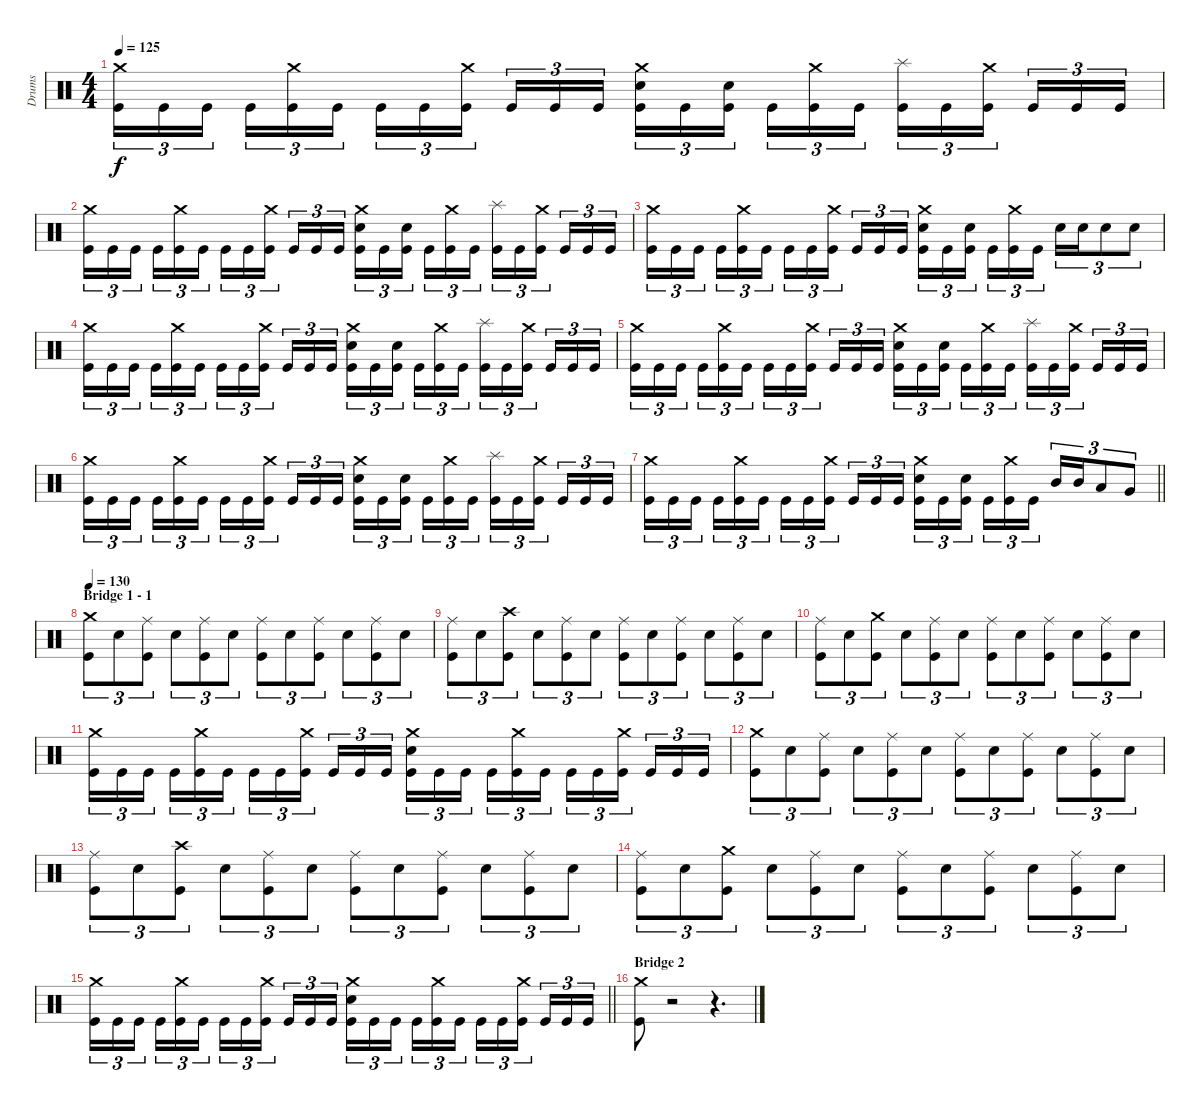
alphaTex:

\track ("Drums" "Drums") {instrument percussion}
\staff {score}
\articulation defaults
\ts (4 4)
\tempo 125
\clef neutral
\ks c
("Crash medium (hit)" "Kick (hit)").16{tu (3 2) dy f} "Kick (hit)".16{tu (3 2)} "Kick (hit)".16{tu (3 2) beam splitsecondary} "Kick (hit)".16{tu (3 2)} ("Crash medium (hit)" "Kick (hit)").16{tu (3 2)} "Kick (hit)".16{tu (3 2)} "Kick (hit)".16{tu (3 2)} "Kick (hit)".16{tu (3 2)} ("Crash medium (hit)" "Kick (hit)").16{tu (3 2) beam splitsecondary} "Kick (hit)".16{tu (3 2)} "Kick (hit)".16{tu (3 2)} "Kick (hit)".16{tu (3 2)} ("Crash medium (hit)" "Snare (hit) 2" "Kick (hit)").16{tu (3 2)} "Kick (hit)".16{tu (3 2)} ("Snare (hit) 2" "Kick (hit)").16{tu (3 2) beam splitsecondary} "Kick (hit)".16{tu (3 2)} ("Crash medium (hit)" "Kick (hit)").16{tu (3 2)} "Kick (hit)".16{tu (3 2)} ("Splash (hit)" "Kick (hit)").16{tu (3 2)} "Kick (hit)".16{tu (3 2)} ("Crash medium (hit)" "Kick (hit)").16{tu (3 2) beam splitsecondary} "Kick (hit)".16{tu (3 2)} "Kick (hit)".16{tu (3 2)} "Kick (hit)".16{tu (3 2)} |
("Crash medium (hit)" "Kick (hit)").16{tu (3 2)} "Kick (hit)".16{tu (3 2)} "Kick (hit)".16{tu (3 2) beam splitsecondary} "Kick (hit)".16{tu (3 2)} ("Crash medium (hit)" "Kick (hit)").16{tu (3 2)} "Kick (hit)".16{tu (3 2)} "Kick (hit)".16{tu (3 2)} "Kick (hit)".16{tu (3 2)} ("Crash medium (hit)" "Kick (hit)").16{tu (3 2) beam splitsecondary} "Kick (hit)".16{tu (3 2)} "Kick (hit)".16{tu (3 2)} "Kick (hit)".16{tu (3 2)} ("Crash medium (hit)" "Snare (hit) 2" "Kick (hit)").16{tu (3 2)} "Kick (hit)".16{tu (3 2)} ("Snare (hit) 2" "Kick (hit)").16{tu (3 2) beam splitsecondary} "Kick (hit)".16{tu (3 2)} ("Crash medium (hit)" "Kick (hit)").16{tu (3 2)} "Kick (hit)".16{tu (3 2)} ("Splash (hit)" "Kick (hit)").16{tu (3 2)} "Kick (hit)".16{tu (3 2)} ("Crash medium (hit)" "Kick (hit)").16{tu (3 2) beam splitsecondary} "Kick (hit)".16{tu (3 2)} "Kick (hit)".16{tu (3 2)} "Kick (hit)".16{tu (3 2)} |
("Crash medium (hit)" "Kick (hit)").16{tu (3 2)} "Kick (hit)".16{tu (3 2)} "Kick (hit)".16{tu (3 2) beam splitsecondary} "Kick (hit)".16{tu (3 2)} ("Crash medium (hit)" "Kick (hit)").16{tu (3 2)} "Kick (hit)".16{tu (3 2)} "Kick (hit)".16{tu (3 2)} "Kick (hit)".16{tu (3 2)} ("Crash medium (hit)" "Kick (hit)").16{tu (3 2) beam splitsecondary} "Kick (hit)".16{tu (3 2)} "Kick (hit)".16{tu (3 2)} "Kick (hit)".16{tu (3 2)} ("Crash medium (hit)" "Snare (hit) 2" "Kick (hit)").16{tu (3 2)} "Kick (hit)".16{tu (3 2)} ("Snare (hit) 2" "Kick (hit)").16{tu (3 2) beam splitsecondary} "Kick (hit)".16{tu (3 2)} ("Crash medium (hit)" "Kick (hit)").16{tu (3 2)} "Kick (hit)".16{tu (3 2)} "Snare (hit) 2".16{tu (3 2)} "Snare (hit) 2".16{tu (3 2)} "Snare (hit) 2".8{tu (3 2)} "Snare (hit) 2".8{tu (3 2)} |
("Crash medium (hit)" "Kick (hit)").16{tu (3 2)} "Kick (hit)".16{tu (3 2)} "Kick (hit)".16{tu (3 2) beam splitsecondary} "Kick (hit)".16{tu (3 2)} ("Crash medium (hit)" "Kick (hit)").16{tu (3 2)} "Kick (hit)".16{tu (3 2)} "Kick (hit)".16{tu (3 2)} "Kick (hit)".16{tu (3 2)} ("Crash medium (hit)" "Kick (hit)").16{tu (3 2) beam splitsecondary} "Kick (hit)".16{tu (3 2)} "Kick (hit)".16{tu (3 2)} "Kick (hit)".16{tu (3 2)} ("Crash medium (hit)" "Snare (hit) 2" "Kick (hit)").16{tu (3 2)} "Kick (hit)".16{tu (3 2)} ("Snare (hit) 2" "Kick (hit)").16{tu (3 2) beam splitsecondary} "Kick (hit)".16{tu (3 2)} ("Crash medium (hit)" "Kick (hit)").16{tu (3 2)} "Kick (hit)".16{tu (3 2)} ("Splash (hit)" "Kick (hit)").16{tu (3 2)} "Kick (hit)".16{tu (3 2)} ("Crash medium (hit)" "Kick (hit)").16{tu (3 2) beam splitsecondary} "Kick (hit)".16{tu (3 2)} "Kick (hit)".16{tu (3 2)} "Kick (hit)".16{tu (3 2)} |
("Crash medium (hit)" "Kick (hit)").16{tu (3 2)} "Kick (hit)".16{tu (3 2)} "Kick (hit)".16{tu (3 2) beam splitsecondary} "Kick (hit)".16{tu (3 2)} ("Crash medium (hit)" "Kick (hit)").16{tu (3 2)} "Kick (hit)".16{tu (3 2)} "Kick (hit)".16{tu (3 2)} "Kick (hit)".16{tu (3 2)} ("Crash medium (hit)" "Kick (hit)").16{tu (3 2) beam splitsecondary} "Kick (hit)".16{tu (3 2)} "Kick (hit)".16{tu (3 2)} "Kick (hit)".16{tu (3 2)} ("Crash medium (hit)" "Snare (hit) 2" "Kick (hit)").16{tu (3 2)} "Kick (hit)".16{tu (3 2)} ("Snare (hit) 2" "Kick (hit)").16{tu (3 2) beam splitsecondary} "Kick (hit)".16{tu (3 2)} ("Crash medium (hit)" "Kick (hit)").16{tu (3 2)} "Kick (hit)".16{tu (3 2)} ("Splash (hit)" "Kick (hit)").16{tu (3 2)} "Kick (hit)".16{tu (3 2)} ("Crash medium (hit)" "Kick (hit)").16{tu (3 2) beam splitsecondary} "Kick (hit)".16{tu (3 2)} "Kick (hit)".16{tu (3 2)} "Kick (hit)".16{tu (3 2)} |
("Crash medium (hit)" "Kick (hit)").16{tu (3 2)} "Kick (hit)".16{tu (3 2)} "Kick (hit)".16{tu (3 2) beam splitsecondary} "Kick (hit)".16{tu (3 2)} ("Crash medium (hit)" "Kick (hit)").16{tu (3 2)} "Kick (hit)".16{tu (3 2)} "Kick (hit)".16{tu (3 2)} "Kick (hit)".16{tu (3 2)} ("Crash medium (hit)" "Kick (hit)").16{tu (3 2) beam splitsecondary} "Kick (hit)".16{tu (3 2)} "Kick (hit)".16{tu (3 2)} "Kick (hit)".16{tu (3 2)} ("Crash medium (hit)" "Snare (hit) 2" "Kick (hit)").16{tu (3 2)} "Kick (hit)".16{tu (3 2)} ("Snare (hit) 2" "Kick (hit)").16{tu (3 2) beam splitsecondary} "Kick (hit)".16{tu (3 2)} ("Crash medium (hit)" "Kick (hit)").16{tu (3 2)} "Kick (hit)".16{tu (3 2)} ("Splash (hit)" "Kick (hit)").16{tu (3 2)} "Kick (hit)".16{tu (3 2)} ("Crash medium (hit)" "Kick (hit)").16{tu (3 2) beam splitsecondary} "Kick (hit)".16{tu (3 2)} "Kick (hit)".16{tu (3 2)} "Kick (hit)".16{tu (3 2)} |
\barLineRight lightlight
("Crash medium (hit)" "Kick (hit)").16{tu (3 2)} "Kick (hit)".16{tu (3 2)} "Kick (hit)".16{tu (3 2) beam splitsecondary} "Kick (hit)".16{tu (3 2)} ("Crash medium (hit)" "Kick (hit)").16{tu (3 2)} "Kick (hit)".16{tu (3 2)} "Kick (hit)".16{tu (3 2)} "Kick (hit)".16{tu (3 2)} ("Crash medium (hit)" "Kick (hit)").16{tu (3 2) beam splitsecondary} "Kick (hit)".16{tu (3 2)} "Kick (hit)".16{tu (3 2)} "Kick (hit)".16{tu (3 2)} ("Crash medium (hit)" "Snare (hit) 2" "Kick (hit)").16{tu (3 2)} "Kick (hit)".16{tu (3 2)} ("Snare (hit) 2" "Kick (hit)").16{tu (3 2) beam splitsecondary} "Kick (hit)".16{tu (3 2)} ("Crash medium (hit)" "Kick (hit)").16{tu (3 2)} "Kick (hit)".16{tu (3 2)} "Mid Tom (hit)".16{tu (3 2)} "Mid Tom (hit)".16{tu (3 2)} "Low Tom (hit)".8{tu (3 2)} "Very Low Tom (hit)".8{tu (3 2)} |
\section ("" "Bridge 1 - 1")
\tempo 130
("Crash medium (hit)" "Kick (hit)").8{tu (3 2)} "Snare (hit) 2".8{tu (3 2)} ("Ride (middle)" "Kick (hit)").8{tu (3 2)} "Snare (hit) 2".8{tu (3 2)} ("Ride (middle)" "Kick (hit)").8{tu (3 2)} "Snare (hit) 2".8{tu (3 2)} ("Ride (middle)" "Kick (hit)").8{tu (3 2)} "Snare (hit) 2".8{tu (3 2)} ("Ride (middle)" "Kick (hit)").8{tu (3 2)} "Snare (hit) 2".8{tu (3 2)} ("Ride (middle)" "Kick (hit)").8{tu (3 2)} "Snare (hit) 2".8{tu (3 2)} |
("Ride (middle)" "Kick (hit)").8{tu (3 2)} "Snare (hit) 2".8{tu (3 2)} ("Crash high (hit)" "Kick (hit)").8{tu (3 2)} "Snare (hit) 2".8{tu (3 2)} ("Ride (middle)" "Kick (hit)").8{tu (3 2)} "Snare (hit) 2".8{tu (3 2)} ("Ride (middle)" "Kick (hit)").8{tu (3 2)} "Snare (hit) 2".8{tu (3 2)} ("Ride (middle)" "Kick (hit)").8{tu (3 2)} "Snare (hit) 2".8{tu (3 2)} ("Ride (middle)" "Kick (hit)").8{tu (3 2)} "Snare (hit) 2".8{tu (3 2)} |
("Ride (middle)" "Kick (hit)").8{tu (3 2)} "Snare (hit) 2".8{tu (3 2)} ("Crash medium (hit)" "Kick (hit)").8{tu (3 2)} "Snare (hit) 2".8{tu (3 2)} ("Ride (middle)" "Kick (hit)").8{tu (3 2)} "Snare (hit) 2".8{tu (3 2)} ("Ride (middle)" "Kick (hit)").8{tu (3 2)} "Snare (hit) 2".8{tu (3 2)} ("Ride (middle)" "Kick (hit)").8{tu (3 2)} "Snare (hit) 2".8{tu (3 2)} ("Ride (middle)" "Kick (hit)").8{tu (3 2)} "Snare (hit) 2".8{tu (3 2)} |
("Crash medium (hit)" "Kick (hit)").16{tu (3 2)} "Kick (hit)".16{tu (3 2)} "Kick (hit)".16{tu (3 2) beam splitsecondary} "Kick (hit)".16{tu (3 2)} ("Crash medium (hit)" "Kick (hit)").16{tu (3 2)} "Kick (hit)".16{tu (3 2)} "Kick (hit)".16{tu (3 2)} "Kick (hit)".16{tu (3 2)} ("Crash medium (hit)" "Kick (hit)").16{tu (3 2) beam splitsecondary} "Kick (hit)".16{tu (3 2)} "Kick (hit)".16{tu (3 2)} "Kick (hit)".16{tu (3 2)} ("Crash medium (hit)" "Snare (hit) 2" "Kick (hit)").16{tu (3 2)} "Kick (hit)".16{tu (3 2)} "Kick (hit)".16{tu (3 2) beam splitsecondary} "Kick (hit)".16{tu (3 2)} ("Crash medium (hit)" "Kick (hit)").16{tu (3 2)} "Kick (hit)".16{tu (3 2)} "Kick (hit)".16{tu (3 2)} "Kick (hit)".16{tu (3 2)} ("Crash medium (hit)" "Kick (hit)").16{tu (3 2) beam splitsecondary} "Kick (hit)".16{tu (3 2)} "Kick (hit)".16{tu (3 2)} "Kick (hit)".16{tu (3 2)} |
("Crash medium (hit)" "Kick (hit)").8{tu (3 2)} "Snare (hit) 2".8{tu (3 2)} ("Ride (middle)" "Kick (hit)").8{tu (3 2)} "Snare (hit) 2".8{tu (3 2)} ("Ride (middle)" "Kick (hit)").8{tu (3 2)} "Snare (hit) 2".8{tu (3 2)} ("Ride (middle)" "Kick (hit)").8{tu (3 2)} "Snare (hit) 2".8{tu (3 2)} ("Ride (middle)" "Kick (hit)").8{tu (3 2)} "Snare (hit) 2".8{tu (3 2)} ("Ride (middle)" "Kick (hit)").8{tu (3 2)} "Snare (hit) 2".8{tu (3 2)} |
("Ride (middle)" "Kick (hit)").8{tu (3 2)} "Snare (hit) 2".8{tu (3 2)} ("Crash high (hit)" "Kick (hit)").8{tu (3 2)} "Snare (hit) 2".8{tu (3 2)} ("Ride (middle)" "Kick (hit)").8{tu (3 2)} "Snare (hit) 2".8{tu (3 2)} ("Ride (middle)" "Kick (hit)").8{tu (3 2)} "Snare (hit) 2".8{tu (3 2)} ("Ride (middle)" "Kick (hit)").8{tu (3 2)} "Snare (hit) 2".8{tu (3 2)} ("Ride (middle)" "Kick (hit)").8{tu (3 2)} "Snare (hit) 2".8{tu (3 2)} |
("Ride (middle)" "Kick (hit)").8{tu (3 2)} "Snare (hit) 2".8{tu (3 2)} ("Crash medium (hit)" "Kick (hit)").8{tu (3 2)} "Snare (hit) 2".8{tu (3 2)} ("Ride (middle)" "Kick (hit)").8{tu (3 2)} "Snare (hit) 2".8{tu (3 2)} ("Ride (middle)" "Kick (hit)").8{tu (3 2)} "Snare (hit) 2".8{tu (3 2)} ("Ride (middle)" "Kick (hit)").8{tu (3 2)} "Snare (hit) 2".8{tu (3 2)} ("Ride (middle)" "Kick (hit)").8{tu (3 2)} "Snare (hit) 2".8{tu (3 2)} |
\barLineRight lightlight
("Crash medium (hit)" "Kick (hit)").16{tu (3 2)} "Kick (hit)".16{tu (3 2)} "Kick (hit)".16{tu (3 2) beam splitsecondary} "Kick (hit)".16{tu (3 2)} ("Crash medium (hit)" "Kick (hit)").16{tu (3 2)} "Kick (hit)".16{tu (3 2)} "Kick (hit)".16{tu (3 2)} "Kick (hit)".16{tu (3 2)} ("Crash medium (hit)" "Kick (hit)").16{tu (3 2) beam splitsecondary} "Kick (hit)".16{tu (3 2)} "Kick (hit)".16{tu (3 2)} "Kick (hit)".16{tu (3 2)} ("Crash medium (hit)" "Snare (hit) 2" "Kick (hit)").16{tu (3 2)} "Kick (hit)".16{tu (3 2)} "Kick (hit)".16{tu (3 2) beam splitsecondary} "Kick (hit)".16{tu (3 2)} ("Crash medium (hit)" "Kick (hit)").16{tu (3 2)} "Kick (hit)".16{tu (3 2)} "Kick (hit)".16{tu (3 2)} "Kick (hit)".16{tu (3 2)} ("Crash medium (hit)" "Kick (hit)").16{tu (3 2) beam splitsecondary} "Kick (hit)".16{tu (3 2)} "Kick (hit)".16{tu (3 2)} "Kick (hit)".16{tu (3 2)} |
\section ("" "Bridge 2")
("Crash medium (hit)" "Kick (hit)").8 r.2 r.4{d}
